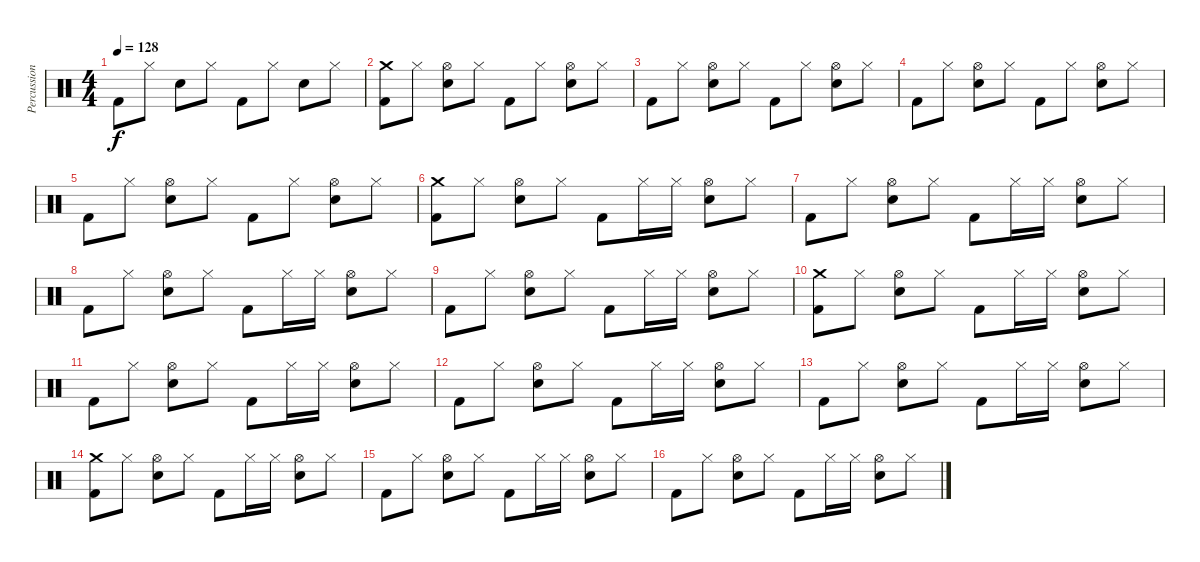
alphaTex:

\track ("Percussion" "Percussion") {instrument percussion}
\staff {score}
\articulation defaults
\ts (4 4)
\tempo 128
\clef neutral
\ks c "Kick (hit) 2".8{dy f} "Hi-Hat (closed)".8 "Snare (hit) 2".8 "Hi-Hat (closed)".8 "Kick (hit) 2".8 "Hi-Hat (closed)".8 "Snare (hit) 2".8 "Hi-Hat (closed)".8
|
("Crash medium (hit)" "Kick (hit) 2").8 "Hi-Hat (closed)".8 ("Hi-Hat (open)" "Snare (hit) 2").8 "Hi-Hat (closed)".8 "Kick (hit) 2".8 "Hi-Hat (closed)".8 ("Hi-Hat (open)" "Snare (hit) 2").8 "Hi-Hat (closed)".8 |
"Kick (hit) 2".8 "Hi-Hat (closed)".8 ("Hi-Hat (open)" "Snare (hit) 2").8 "Hi-Hat (closed)".8 "Kick (hit) 2".8 "Hi-Hat (closed)".8 ("Hi-Hat (open)" "Snare (hit) 2").8 "Hi-Hat (closed)".8 |
"Kick (hit) 2".8 "Hi-Hat (closed)".8 ("Hi-Hat (open)" "Snare (hit) 2").8 "Hi-Hat (closed)".8 "Kick (hit) 2".8 "Hi-Hat (closed)".8 ("Hi-Hat (open)" "Snare (hit) 2").8 "Hi-Hat (closed)".8 |
"Kick (hit) 2".8 "Hi-Hat (closed)".8 ("Hi-Hat (open)" "Snare (hit) 2").8 "Hi-Hat (closed)".8 "Kick (hit) 2".8 "Hi-Hat (closed)".8 ("Hi-Hat (open)" "Snare (hit) 2").8 "Hi-Hat (closed)".8 |
("Crash medium (hit)" "Kick (hit) 2").8 "Hi-Hat (closed)".8 ("Hi-Hat (open)" "Snare (hit) 2").8 "Hi-Hat (closed)".8 "Kick (hit) 2".8 "Hi-Hat (closed)".16 "Hi-Hat (closed)".16 ("Hi-Hat (open)" "Snare (hit) 2").8 "Hi-Hat (closed)".8 |
"Kick (hit) 2".8 "Hi-Hat (closed)".8 ("Hi-Hat (open)" "Snare (hit) 2").8 "Hi-Hat (closed)".8 "Kick (hit) 2".8 "Hi-Hat (closed)".16 "Hi-Hat (closed)".16 ("Hi-Hat (open)" "Snare (hit) 2").8 "Hi-Hat (closed)".8 |
"Kick (hit) 2".8 "Hi-Hat (closed)".8 ("Hi-Hat (open)" "Snare (hit) 2").8 "Hi-Hat (closed)".8 "Kick (hit) 2".8 "Hi-Hat (closed)".16 "Hi-Hat (closed)".16 ("Hi-Hat (open)" "Snare (hit) 2").8 "Hi-Hat (closed)".8 |
"Kick (hit) 2".8 "Hi-Hat (closed)".8 ("Hi-Hat (open)" "Snare (hit) 2").8 "Hi-Hat (closed)".8 "Kick (hit) 2".8 "Hi-Hat (closed)".16 "Hi-Hat (closed)".16 ("Hi-Hat (open)" "Snare (hit) 2").8 "Hi-Hat (closed)".8 |
("Crash medium (hit)" "Kick (hit) 2").8 "Hi-Hat (closed)".8 ("Hi-Hat (open)" "Snare (hit) 2").8 "Hi-Hat (closed)".8 "Kick (hit) 2".8 "Hi-Hat (closed)".16 "Hi-Hat (closed)".16 ("Hi-Hat (open)" "Snare (hit) 2").8 "Hi-Hat (closed)".8 |
"Kick (hit) 2".8 "Hi-Hat (closed)".8 ("Hi-Hat (open)" "Snare (hit) 2").8 "Hi-Hat (closed)".8 "Kick (hit) 2".8 "Hi-Hat (closed)".16 "Hi-Hat (closed)".16 ("Hi-Hat (open)" "Snare (hit) 2").8 "Hi-Hat (closed)".8 |
"Kick (hit) 2".8 "Hi-Hat (closed)".8 ("Hi-Hat (open)" "Snare (hit) 2").8 "Hi-Hat (closed)".8 "Kick (hit) 2".8 "Hi-Hat (closed)".16 "Hi-Hat (closed)".16 ("Hi-Hat (open)" "Snare (hit) 2").8 "Hi-Hat (closed)".8 |
"Kick (hit) 2".8 "Hi-Hat (closed)".8 ("Hi-Hat (open)" "Snare (hit) 2").8 "Hi-Hat (closed)".8 "Kick (hit) 2".8 "Hi-Hat (closed)".16 "Hi-Hat (closed)".16 ("Hi-Hat (open)" "Snare (hit) 2").8 "Hi-Hat (closed)".8 |
("Crash medium (hit)" "Kick (hit) 2").8 "Hi-Hat (closed)".8 ("Hi-Hat (open)" "Snare (hit) 2").8 "Hi-Hat (closed)".8 "Kick (hit) 2".8 "Hi-Hat (closed)".16 "Hi-Hat (closed)".16 ("Hi-Hat (open)" "Snare (hit) 2").8 "Hi-Hat (closed)".8 |
"Kick (hit) 2".8 "Hi-Hat (closed)".8 ("Hi-Hat (open)" "Snare (hit) 2").8 "Hi-Hat (closed)".8 "Kick (hit) 2".8 "Hi-Hat (closed)".16 "Hi-Hat (closed)".16 ("Hi-Hat (open)" "Snare (hit) 2").8 "Hi-Hat (closed)".8 |
"Kick (hit) 2".8 "Hi-Hat (closed)".8 ("Hi-Hat (open)" "Snare (hit) 2").8 "Hi-Hat (closed)".8 "Kick (hit) 2".8 "Hi-Hat (closed)".16 "Hi-Hat (closed)".16 ("Hi-Hat (open)" "Snare (hit) 2").8 "Hi-Hat (closed)".8
